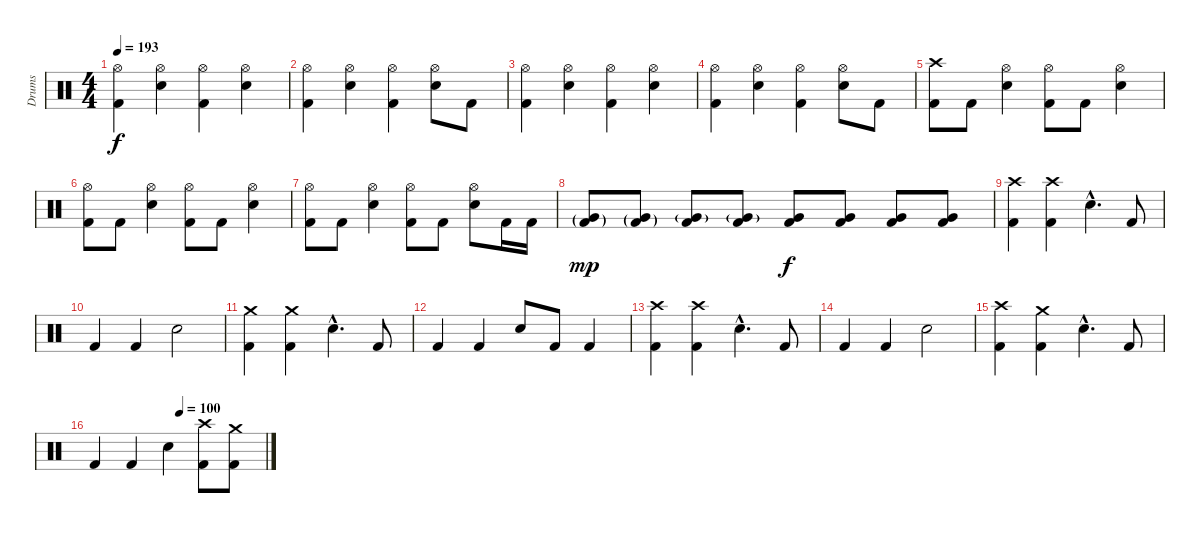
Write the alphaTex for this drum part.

\track ("Drums" "Drums") {instrument percussion}
\staff {score}
\articulation defaults
\ts (4 4)
\tempo 193
\clef neutral
\ks c
("Hi-Hat (open)" "Kick (hit) 2").4{dy f} ("Hi-Hat (open)" "Electric Snare (hit)").4 ("Hi-Hat (open)" "Kick (hit) 2").4 ("Hi-Hat (open)" "Electric Snare (hit)").4 |
("Hi-Hat (open)" "Kick (hit) 2").4 ("Hi-Hat (open)" "Electric Snare (hit)").4 ("Hi-Hat (open)" "Kick (hit) 2").4 ("Hi-Hat (open)" "Electric Snare (hit)").8 "Kick (hit) 2".8 |
("Hi-Hat (open)" "Kick (hit) 2").4 ("Hi-Hat (open)" "Electric Snare (hit)").4 ("Hi-Hat (open)" "Kick (hit) 2").4 ("Hi-Hat (open)" "Electric Snare (hit)").4 |
("Hi-Hat (open)" "Kick (hit) 2").4 ("Hi-Hat (open)" "Electric Snare (hit)").4 ("Hi-Hat (open)" "Kick (hit) 2").4 ("Hi-Hat (open)" "Electric Snare (hit)").8 "Kick (hit) 2".8 |
("Crash high (hit)" "Kick (hit) 2").8 "Kick (hit) 2".8 ("Hi-Hat (open)" "Electric Snare (hit)").4 ("Hi-Hat (open)" "Kick (hit) 2").8 "Kick (hit) 2".8 ("Hi-Hat (open)" "Electric Snare (hit)").4 |
("Hi-Hat (open)" "Kick (hit) 2").8 "Kick (hit) 2".8 ("Hi-Hat (open)" "Electric Snare (hit)").4 ("Hi-Hat (open)" "Kick (hit) 2").8 "Kick (hit) 2".8 ("Hi-Hat (open)" "Electric Snare (hit)").4 |
("Hi-Hat (open)" "Kick (hit) 2").8 "Kick (hit) 2".8 ("Hi-Hat (open)" "Electric Snare (hit)").4 ("Hi-Hat (open)" "Kick (hit) 2").8 "Kick (hit) 2".8 ("Hi-Hat (open)" "Electric Snare (hit)").8 "Kick (hit) 2".16 "Kick (hit) 2".16 |
("Very Low Tom (hit)"{g} "Kick (hit) 2"{g}).8{dy mp} ("Very Low Tom (hit)"{g} "Kick (hit) 2"{g}).8 ("Very Low Tom (hit)"{g} "Kick (hit) 2").8 ("Very Low Tom (hit)"{g} "Kick (hit) 2").8 ("Very Low Tom (hit)" "Kick (hit) 2").8{dy f} ("Very Low Tom (hit)" "Kick (hit) 2").8 ("Very Low Tom (hit)" "Kick (hit) 2").8 ("Very Low Tom (hit)" "Kick (hit) 2").8 |
("Crash high (hit)" "Kick (hit) 2").4 ("Crash high (hit)" "Kick (hit) 2").4 "Electric Snare (hit)"{hac}.4{d} "Kick (hit) 2".8 |
"Kick (hit) 2".4 "Kick (hit) 2".4 "Electric Snare (hit)".2 |
("Crash medium (hit)" "Kick (hit) 2").4 ("Crash medium (hit)" "Kick (hit) 2").4 "Electric Snare (hit)"{hac}.4{d} "Kick (hit) 2".8 |
"Kick (hit) 2".4 "Kick (hit) 2".4 "Electric Snare (hit)".8 "Kick (hit) 2".8 "Kick (hit) 2".4 |
("Crash high (hit)" "Kick (hit) 2").4 ("Crash high (hit)" "Kick (hit) 2").4 "Electric Snare (hit)"{hac}.4{d} "Kick (hit) 2".8 |
"Kick (hit) 2".4 "Kick (hit) 2".4 "Electric Snare (hit)".2 |
("Crash high (hit)" "Kick (hit) 2").4 ("Crash medium (hit)" "Kick (hit) 2").4 "Electric Snare (hit)"{hac}.4{d} "Kick (hit) 2".8 |
\tempo (100 0.5)
"Kick (hit) 2".4 "Kick (hit) 2".4 "Electric Snare (hit)".4 ("Crash high (hit)" "Kick (hit) 2").8 ("Crash medium (hit)" "Kick (hit) 2").8
